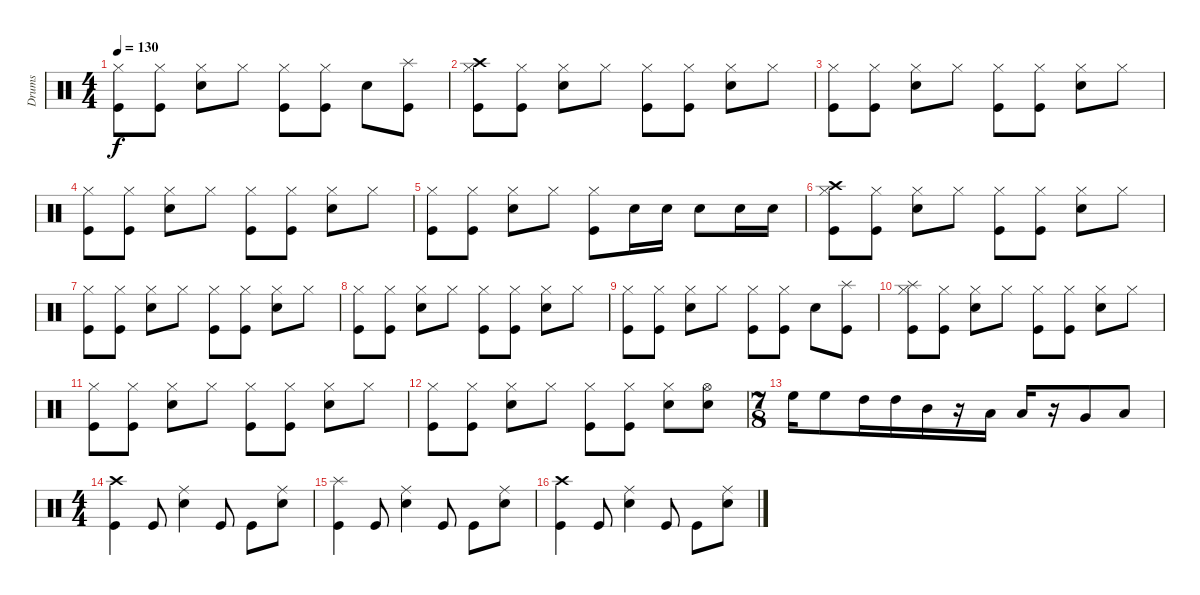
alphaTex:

\track ("Drums" "Drums") {instrument percussion}
\staff {score}
\articulation defaults
\ts (4 4)
\tempo 130
\clef neutral
\ks c
("Hi-Hat (closed)" "Kick (hit)").8{dy f} ("Hi-Hat (closed)" "Kick (hit)").8 ("Hi-Hat (closed)" "Snare (hit) 2").8 "Hi-Hat (closed)".8 ("Hi-Hat (closed)" "Kick (hit)").8 ("Hi-Hat (closed)" "Kick (hit)").8 "Snare (hit) 2".8 ("Kick (hit)" "Splash (hit)").8 |
("Hi-Hat (closed)" "Kick (hit)" "Crash high (hit)").8 ("Hi-Hat (closed)" "Kick (hit)").8 ("Hi-Hat (closed)" "Snare (hit) 2").8 "Hi-Hat (closed)".8 ("Hi-Hat (closed)" "Kick (hit)").8 ("Hi-Hat (closed)" "Kick (hit)").8 ("Hi-Hat (closed)" "Snare (hit) 2").8 "Hi-Hat (closed)".8 |
("Hi-Hat (closed)" "Kick (hit)").8 ("Hi-Hat (closed)" "Kick (hit)").8 ("Hi-Hat (closed)" "Snare (hit) 2").8 "Hi-Hat (closed)".8 ("Hi-Hat (closed)" "Kick (hit)").8 ("Hi-Hat (closed)" "Kick (hit)").8 ("Hi-Hat (closed)" "Snare (hit) 2").8 "Hi-Hat (closed)".8 |
("Hi-Hat (closed)" "Kick (hit)").8 ("Hi-Hat (closed)" "Kick (hit)").8 ("Hi-Hat (closed)" "Snare (hit) 2").8 "Hi-Hat (closed)".8 ("Hi-Hat (closed)" "Kick (hit)").8 ("Hi-Hat (closed)" "Kick (hit)").8 ("Hi-Hat (closed)" "Snare (hit) 2").8 "Hi-Hat (closed)".8 |
("Hi-Hat (closed)" "Kick (hit)").8 ("Hi-Hat (closed)" "Kick (hit)").8 ("Hi-Hat (closed)" "Snare (hit) 2").8 "Hi-Hat (closed)".8 ("Hi-Hat (closed)" "Kick (hit)").8 "Snare (hit) 2".16 "Snare (hit) 2".16 "Snare (hit) 2".8 "Snare (hit) 2".16 "Snare (hit) 2".16 |
("Hi-Hat (closed)" "Kick (hit)" "Crash high (hit)").8 ("Hi-Hat (closed)" "Kick (hit)").8 ("Hi-Hat (closed)" "Snare (hit) 2").8 "Hi-Hat (closed)".8 ("Hi-Hat (closed)" "Kick (hit)").8 ("Hi-Hat (closed)" "Kick (hit)").8 ("Hi-Hat (closed)" "Snare (hit) 2").8 "Hi-Hat (closed)".8 |
("Hi-Hat (closed)" "Kick (hit)").8 ("Hi-Hat (closed)" "Kick (hit)").8 ("Hi-Hat (closed)" "Snare (hit) 2").8 "Hi-Hat (closed)".8 ("Hi-Hat (closed)" "Kick (hit)").8 ("Hi-Hat (closed)" "Kick (hit)").8 ("Hi-Hat (closed)" "Snare (hit) 2").8 "Hi-Hat (closed)".8 |
("Hi-Hat (closed)" "Kick (hit)").8 ("Hi-Hat (closed)" "Kick (hit)").8 ("Hi-Hat (closed)" "Snare (hit) 2").8 "Hi-Hat (closed)".8 ("Hi-Hat (closed)" "Kick (hit)").8 ("Hi-Hat (closed)" "Kick (hit)").8 ("Hi-Hat (closed)" "Snare (hit) 2").8 "Hi-Hat (closed)".8 |
("Hi-Hat (closed)" "Kick (hit)").8 ("Hi-Hat (closed)" "Kick (hit)").8 ("Hi-Hat (closed)" "Snare (hit) 2").8 "Hi-Hat (closed)".8 ("Hi-Hat (closed)" "Kick (hit)").8 ("Hi-Hat (closed)" "Kick (hit)").8 "Snare (hit) 2".8 ("Kick (hit)" "Splash (hit)").8 |
("Hi-Hat (closed)" "Kick (hit)" "Splash (hit)").8 ("Hi-Hat (closed)" "Kick (hit)").8 ("Hi-Hat (closed)" "Snare (hit) 2").8 "Hi-Hat (closed)".8 ("Hi-Hat (closed)" "Kick (hit)").8 ("Hi-Hat (closed)" "Kick (hit)").8 ("Hi-Hat (closed)" "Snare (hit) 2").8 "Hi-Hat (closed)".8 |
("Hi-Hat (closed)" "Kick (hit)").8 ("Hi-Hat (closed)" "Kick (hit)").8 ("Hi-Hat (closed)" "Snare (hit) 2").8 "Hi-Hat (closed)".8 ("Hi-Hat (closed)" "Kick (hit)").8 ("Hi-Hat (closed)" "Kick (hit)").8 ("Hi-Hat (closed)" "Snare (hit) 2").8 "Hi-Hat (closed)".8 |
("Hi-Hat (closed)" "Kick (hit)").8 ("Hi-Hat (closed)" "Kick (hit)").8 ("Hi-Hat (closed)" "Snare (hit) 2").8 "Hi-Hat (closed)".8 ("Hi-Hat (closed)" "Kick (hit)").8 ("Hi-Hat (closed)" "Kick (hit)").8 ("Hi-Hat (closed)" "Snare (hit) 2").8 ("Hi-Hat (open)" "Snare (hit) 2").8 |
\ts (7 8)
"High Floor Tom (hit)".16 "High Floor Tom (hit)".8 "High Tom (hit)".16 "High Tom (hit)".16 "Mid Tom (hit)".16 r.16 "Low Tom (hit)".16 "Low Tom (hit)".16 r.16 "Very Low Tom (hit)".8 "Low Floor Tom (hit)".8 |
\ts (4 4)
("Kick (hit)" "Crash high (hit)").4 "Kick (hit)".8 ("Ride (middle)" "Snare (hit) 2").4 "Kick (hit)".8 "Kick (hit)".8 ("Ride (middle)" "Snare (hit) 2").8 |
("Kick (hit)" "Splash (hit)").4 "Kick (hit)".8 ("Ride (middle)" "Snare (hit) 2").4 "Kick (hit)".8 "Kick (hit)".8 ("Ride (middle)" "Snare (hit) 2").8 |
("Kick (hit)" "Crash high (hit)").4 "Kick (hit)".8 ("Ride (middle)" "Snare (hit) 2").4 "Kick (hit)".8 "Kick (hit)".8 ("Ride (middle)" "Snare (hit) 2").8
